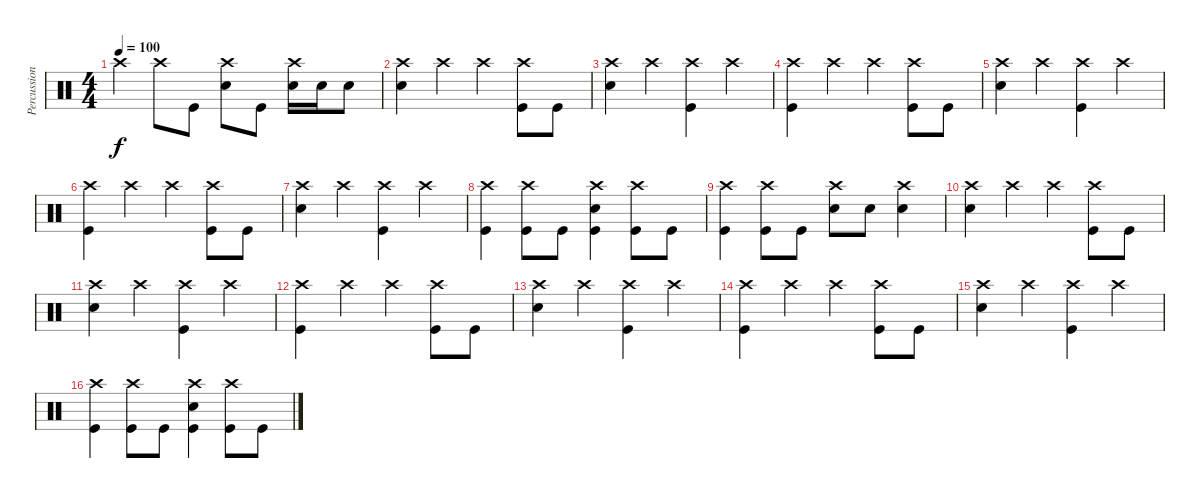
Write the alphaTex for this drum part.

\track ("Percussions" "Percussion") {instrument percussion}
\staff {score}
\articulation defaults
\ts (4 4)
\tempo 100
\clef neutral
\ks c "Crash high (hit)".4{dy f} "Crash high (hit)".8 "Kick (hit)".8
("Crash high (hit)" "Snare (hit) 2").8 "Kick (hit)".8 ("Crash high (hit)" "Snare (hit) 2").16 "Snare (hit) 2".16 "Snare (hit) 2".8 |
("Crash high (hit)" "Snare (hit) 2").4 "Crash high (hit)".4 "Crash high (hit)".4 ("Crash high (hit)" "Kick (hit)").8 "Kick (hit)".8 |
("Crash high (hit)" "Snare (hit) 2").4 "Crash high (hit)".4 ("Crash high (hit)" "Kick (hit)").4 "Crash high (hit)".4 |
("Crash high (hit)" "Kick (hit)").4 "Crash high (hit)".4 "Crash high (hit)".4 ("Crash high (hit)" "Kick (hit)").8 "Kick (hit)".8 |
("Crash high (hit)" "Snare (hit) 2").4 "Crash high (hit)".4 ("Crash high (hit)" "Kick (hit)").4 "Crash high (hit)".4 |
("Crash high (hit)" "Kick (hit)").4 "Crash high (hit)".4 "Crash high (hit)".4 ("Crash high (hit)" "Kick (hit)").8 "Kick (hit)".8 |
("Crash high (hit)" "Snare (hit) 2").4 "Crash high (hit)".4 ("Crash high (hit)" "Kick (hit)").4 "Crash high (hit)".4 |
("Crash high (hit)" "Kick (hit)").4 ("Crash high (hit)" "Kick (hit)").8 "Kick (hit)".8 ("Crash high (hit)" "Snare (hit) 2" "Kick (hit)").4 ("Crash high (hit)" "Kick (hit)").8 "Kick (hit)".8 |
("Crash high (hit)" "Kick (hit)").4 ("Crash high (hit)" "Kick (hit)").8 "Kick (hit)".8 ("Crash high (hit)" "Snare (hit) 2").8 "Snare (hit) 2".8 ("Crash high (hit)" "Snare (hit) 2").4 |
("Crash high (hit)" "Snare (hit) 2").4 "Crash high (hit)".4 "Crash high (hit)".4 ("Crash high (hit)" "Kick (hit)").8 "Kick (hit)".8 |
("Crash high (hit)" "Snare (hit) 2").4 "Crash high (hit)".4 ("Crash high (hit)" "Kick (hit)").4 "Crash high (hit)".4 |
("Crash high (hit)" "Kick (hit)").4 "Crash high (hit)".4 "Crash high (hit)".4 ("Crash high (hit)" "Kick (hit)").8 "Kick (hit)".8 |
("Crash high (hit)" "Snare (hit) 2").4 "Crash high (hit)".4 ("Crash high (hit)" "Kick (hit)").4 "Crash high (hit)".4 |
("Crash high (hit)" "Kick (hit)").4 "Crash high (hit)".4 "Crash high (hit)".4 ("Crash high (hit)" "Kick (hit)").8 "Kick (hit)".8 |
("Crash high (hit)" "Snare (hit) 2").4 "Crash high (hit)".4 ("Crash high (hit)" "Kick (hit)").4 "Crash high (hit)".4 |
("Crash high (hit)" "Kick (hit)").4 ("Crash high (hit)" "Kick (hit)").8 "Kick (hit)".8 ("Crash high (hit)" "Snare (hit) 2" "Kick (hit)").4 ("Crash high (hit)" "Kick (hit)").8 "Kick (hit)".8
